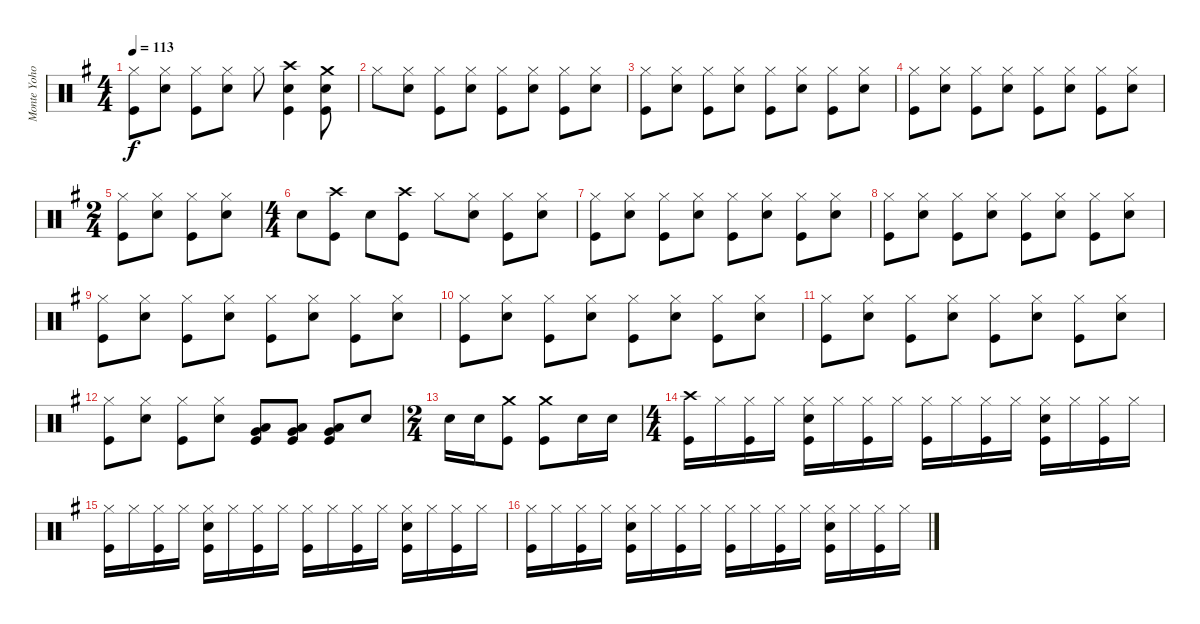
\track ("Monte Yoho Drums" "Monte Yoho") {instrument percussion}
\staff {score}
\articulation defaults
\ts (4 4)
\tempo 113
\clef neutral
\ks eminor
("Hi-Hat (closed)" "Kick (hit)").8{dy f} ("Hi-Hat (closed)" "Snare (hit) 2").8 ("Hi-Hat (closed)" "Kick (hit)").8 ("Hi-Hat (closed)" "Snare (hit) 2").8 "Hi-Hat (closed)".8 ("Crash high (hit)" "Snare (hit) 2" "Kick (hit)").4 ("Crash medium (hit)" "Snare (hit) 2" "Kick (hit)").8 |
"Hi-Hat (closed)".8 ("Hi-Hat (closed)" "Snare (hit) 2").8 ("Hi-Hat (closed)" "Kick (hit)").8 ("Hi-Hat (closed)" "Snare (hit) 2").8 ("Hi-Hat (closed)" "Kick (hit)").8 ("Hi-Hat (closed)" "Snare (hit) 2").8 ("Hi-Hat (closed)" "Kick (hit)").8 ("Hi-Hat (closed)" "Snare (hit) 2").8 |
("Hi-Hat (closed)" "Kick (hit)").8 ("Hi-Hat (closed)" "Snare (hit) 2").8 ("Hi-Hat (closed)" "Kick (hit)").8 ("Hi-Hat (closed)" "Snare (hit) 2").8 ("Hi-Hat (closed)" "Kick (hit)").8 ("Hi-Hat (closed)" "Snare (hit) 2").8 ("Hi-Hat (closed)" "Kick (hit)").8 ("Hi-Hat (closed)" "Snare (hit) 2").8 |
("Hi-Hat (closed)" "Kick (hit)").8 ("Hi-Hat (closed)" "Snare (hit) 2").8 ("Hi-Hat (closed)" "Kick (hit)").8 ("Hi-Hat (closed)" "Snare (hit) 2").8 ("Hi-Hat (closed)" "Kick (hit)").8 ("Hi-Hat (closed)" "Snare (hit) 2").8 ("Hi-Hat (closed)" "Kick (hit)").8 ("Hi-Hat (closed)" "Snare (hit) 2").8 |
\ts (2 4)
("Hi-Hat (closed)" "Kick (hit)").8 ("Hi-Hat (closed)" "Snare (hit) 2").8 ("Hi-Hat (closed)" "Kick (hit)").8 ("Hi-Hat (closed)" "Snare (hit) 2").8 |
\ts (4 4)
"Snare (hit) 2".8 ("Crash high (hit)" "Kick (hit)").8 "Snare (hit) 2".8 ("Crash high (hit)" "Kick (hit)").8 "Hi-Hat (closed)".8 ("Hi-Hat (closed)" "Snare (hit) 2").8 ("Hi-Hat (closed)" "Kick (hit)").8 ("Hi-Hat (closed)" "Snare (hit) 2").8 |
("Hi-Hat (closed)" "Kick (hit)").8 ("Hi-Hat (closed)" "Snare (hit) 2").8 ("Hi-Hat (closed)" "Kick (hit)").8 ("Hi-Hat (closed)" "Snare (hit) 2").8 ("Hi-Hat (closed)" "Kick (hit)").8 ("Hi-Hat (closed)" "Snare (hit) 2").8 ("Hi-Hat (closed)" "Kick (hit)").8 ("Hi-Hat (closed)" "Snare (hit) 2").8 |
("Hi-Hat (closed)" "Kick (hit)").8 ("Hi-Hat (closed)" "Snare (hit) 2").8 ("Hi-Hat (closed)" "Kick (hit)").8 ("Hi-Hat (closed)" "Snare (hit) 2").8 ("Hi-Hat (closed)" "Kick (hit)").8 ("Hi-Hat (closed)" "Snare (hit) 2").8 ("Hi-Hat (closed)" "Kick (hit)").8 ("Hi-Hat (closed)" "Snare (hit) 2").8 |
("Hi-Hat (closed)" "Kick (hit)").8 ("Hi-Hat (closed)" "Snare (hit) 2").8 ("Hi-Hat (closed)" "Kick (hit)").8 ("Hi-Hat (closed)" "Snare (hit) 2").8 ("Hi-Hat (closed)" "Kick (hit)").8 ("Hi-Hat (closed)" "Snare (hit) 2").8 ("Hi-Hat (closed)" "Kick (hit)").8 ("Hi-Hat (closed)" "Snare (hit) 2").8 |
("Hi-Hat (closed)" "Kick (hit)").8 ("Hi-Hat (closed)" "Snare (hit) 2").8 ("Hi-Hat (closed)" "Kick (hit)").8 ("Hi-Hat (closed)" "Snare (hit) 2").8 ("Hi-Hat (closed)" "Kick (hit)").8 ("Hi-Hat (closed)" "Snare (hit) 2").8 ("Hi-Hat (closed)" "Kick (hit)").8 ("Hi-Hat (closed)" "Snare (hit) 2").8 |
("Hi-Hat (closed)" "Kick (hit)").8 ("Hi-Hat (closed)" "Snare (hit) 2").8 ("Hi-Hat (closed)" "Kick (hit)").8 ("Hi-Hat (closed)" "Snare (hit) 2").8 ("Hi-Hat (closed)" "Kick (hit)").8 ("Hi-Hat (closed)" "Snare (hit) 2").8 ("Hi-Hat (closed)" "Kick (hit)").8 ("Hi-Hat (closed)" "Snare (hit) 2").8 |
("Hi-Hat (closed)" "Kick (hit)").8 ("Hi-Hat (closed)" "Snare (hit) 2").8 ("Hi-Hat (closed)" "Kick (hit)").8 ("Hi-Hat (closed)" "Snare (hit) 2").8 ("Very Low Tom (hit)" "Low Floor Tom (hit)" "Kick (hit)").8 ("Very Low Tom (hit)" "Low Floor Tom (hit)" "Kick (hit)").8 ("Very Low Tom (hit)" "Low Floor Tom (hit)" "Kick (hit)").8 "Snare (hit) 2".8 |
\ts (2 4)
"Snare (hit) 2".16 "Snare (hit) 2".16 ("Crash medium (hit)" "Kick (hit)").8 ("Crash medium (hit)" "Kick (hit)").8 "Snare (hit) 2".16 "Snare (hit) 2".16 |
\ts (4 4)
("Crash high (hit)" "Kick (hit)").16 "Hi-Hat (closed)".16 ("Hi-Hat (closed)" "Kick (hit)").16 "Hi-Hat (closed)".16 ("Hi-Hat (closed)" "Snare (hit) 2" "Kick (hit)").16 "Hi-Hat (closed)".16 ("Hi-Hat (closed)" "Kick (hit)").16 "Hi-Hat (closed)".16 ("Hi-Hat (closed)" "Kick (hit)").16 "Hi-Hat (closed)".16 ("Hi-Hat (closed)" "Kick (hit)").16 "Hi-Hat (closed)".16 ("Hi-Hat (closed)" "Snare (hit) 2" "Kick (hit)").16 "Hi-Hat (closed)".16 ("Hi-Hat (closed)" "Kick (hit)").16 "Hi-Hat (closed)".16 |
("Hi-Hat (closed)" "Kick (hit)").16 "Hi-Hat (closed)".16 ("Hi-Hat (closed)" "Kick (hit)").16 "Hi-Hat (closed)".16 ("Hi-Hat (closed)" "Snare (hit) 2" "Kick (hit)").16 "Hi-Hat (closed)".16 ("Hi-Hat (closed)" "Kick (hit)").16 "Hi-Hat (closed)".16 ("Hi-Hat (closed)" "Kick (hit)").16 "Hi-Hat (closed)".16 ("Hi-Hat (closed)" "Kick (hit)").16 "Hi-Hat (closed)".16 ("Hi-Hat (closed)" "Snare (hit) 2" "Kick (hit)").16 "Hi-Hat (closed)".16 ("Hi-Hat (closed)" "Kick (hit)").16 "Hi-Hat (closed)".16 |
("Hi-Hat (closed)" "Kick (hit)").16 "Hi-Hat (closed)".16 ("Hi-Hat (closed)" "Kick (hit)").16 "Hi-Hat (closed)".16 ("Hi-Hat (closed)" "Snare (hit) 2" "Kick (hit)").16 "Hi-Hat (closed)".16 ("Hi-Hat (closed)" "Kick (hit)").16 "Hi-Hat (closed)".16 ("Hi-Hat (closed)" "Kick (hit)").16 "Hi-Hat (closed)".16 ("Hi-Hat (closed)" "Kick (hit)").16 "Hi-Hat (closed)".16 ("Hi-Hat (closed)" "Snare (hit) 2" "Kick (hit)").16 "Hi-Hat (closed)".16 ("Hi-Hat (closed)" "Kick (hit)").16 "Hi-Hat (closed)".16
